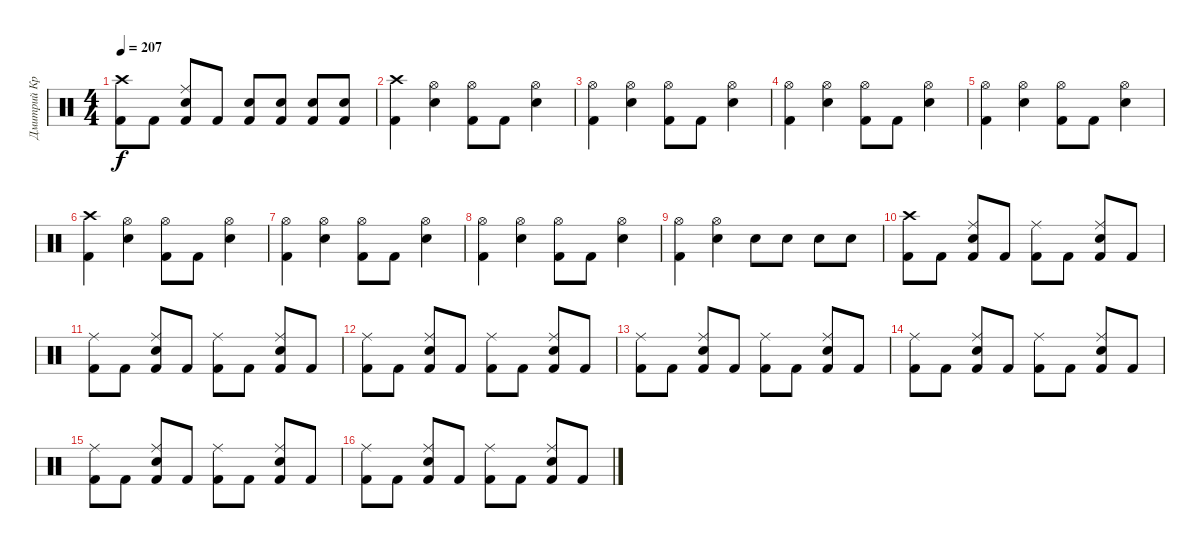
\track ("Дмитрий Кривенков" "Дмитрий Кр") {instrument percussion}
\staff {score}
\articulation defaults
\ts (4 4)
\tempo 207
\clef neutral
\ks c
("Crash high (hit)" "Kick (hit) 2").8{dy f} "Kick (hit) 2".8 ("Ride (middle)" "Electric Snare (hit)" "Kick (hit) 2").8 "Kick (hit) 2".8 ("Electric Snare (hit)" "Kick (hit) 2").8 ("Electric Snare (hit)" "Kick (hit) 2").8 ("Electric Snare (hit)" "Kick (hit) 2").8 ("Electric Snare (hit)" "Kick (hit) 2").8 |
("Crash high (hit)" "Kick (hit) 2").4 ("Hi-Hat (open)" "Electric Snare (hit)").4 ("Hi-Hat (open)" "Kick (hit) 2").8 "Kick (hit) 2".8 ("Hi-Hat (open)" "Electric Snare (hit)").4 |
("Hi-Hat (open)" "Kick (hit) 2").4 ("Hi-Hat (open)" "Electric Snare (hit)").4 ("Hi-Hat (open)" "Kick (hit) 2").8 "Kick (hit) 2".8 ("Hi-Hat (open)" "Electric Snare (hit)").4 |
("Hi-Hat (open)" "Kick (hit) 2").4 ("Hi-Hat (open)" "Electric Snare (hit)").4 ("Hi-Hat (open)" "Kick (hit) 2").8 "Kick (hit) 2".8 ("Hi-Hat (open)" "Electric Snare (hit)").4 |
("Hi-Hat (open)" "Kick (hit) 2").4 ("Hi-Hat (open)" "Electric Snare (hit)").4 ("Hi-Hat (open)" "Kick (hit) 2").8 "Kick (hit) 2".8 ("Hi-Hat (open)" "Electric Snare (hit)").4 |
("Crash high (hit)" "Kick (hit) 2").4 ("Hi-Hat (open)" "Electric Snare (hit)").4 ("Hi-Hat (open)" "Kick (hit) 2").8 "Kick (hit) 2".8 ("Hi-Hat (open)" "Electric Snare (hit)").4 |
("Hi-Hat (open)" "Kick (hit) 2").4 ("Hi-Hat (open)" "Electric Snare (hit)").4 ("Hi-Hat (open)" "Kick (hit) 2").8 "Kick (hit) 2".8 ("Hi-Hat (open)" "Electric Snare (hit)").4 |
("Hi-Hat (open)" "Kick (hit) 2").4 ("Hi-Hat (open)" "Electric Snare (hit)").4 ("Hi-Hat (open)" "Kick (hit) 2").8 "Kick (hit) 2".8 ("Hi-Hat (open)" "Electric Snare (hit)").4 |
("Hi-Hat (open)" "Kick (hit) 2").4 ("Hi-Hat (open)" "Electric Snare (hit)").4 "Electric Snare (hit)".8 "Electric Snare (hit)".8 "Electric Snare (hit)".8 "Electric Snare (hit)".8 |
("Crash high (hit)" "Kick (hit) 2").8 "Kick (hit) 2".8 ("Ride (middle)" "Electric Snare (hit)" "Kick (hit) 2").8 "Kick (hit) 2".8 ("Ride (middle)" "Kick (hit) 2").8 "Kick (hit) 2".8 ("Ride (middle)" "Electric Snare (hit)" "Kick (hit) 2").8 "Kick (hit) 2".8 |
("Ride (middle)" "Kick (hit) 2").8 "Kick (hit) 2".8 ("Ride (middle)" "Electric Snare (hit)" "Kick (hit) 2").8 "Kick (hit) 2".8 ("Ride (middle)" "Kick (hit) 2").8 "Kick (hit) 2".8 ("Ride (middle)" "Electric Snare (hit)" "Kick (hit) 2").8 "Kick (hit) 2".8 |
("Ride (middle)" "Kick (hit) 2").8 "Kick (hit) 2".8 ("Ride (middle)" "Electric Snare (hit)" "Kick (hit) 2").8 "Kick (hit) 2".8 ("Ride (middle)" "Kick (hit) 2").8 "Kick (hit) 2".8 ("Ride (middle)" "Electric Snare (hit)" "Kick (hit) 2").8 "Kick (hit) 2".8 |
("Ride (middle)" "Kick (hit) 2").8 "Kick (hit) 2".8 ("Ride (middle)" "Electric Snare (hit)" "Kick (hit) 2").8 "Kick (hit) 2".8 ("Ride (middle)" "Kick (hit) 2").8 "Kick (hit) 2".8 ("Ride (middle)" "Electric Snare (hit)" "Kick (hit) 2").8 "Kick (hit) 2".8 |
("Ride (middle)" "Kick (hit) 2").8 "Kick (hit) 2".8 ("Ride (middle)" "Electric Snare (hit)" "Kick (hit) 2").8 "Kick (hit) 2".8 ("Ride (middle)" "Kick (hit) 2").8 "Kick (hit) 2".8 ("Ride (middle)" "Electric Snare (hit)" "Kick (hit) 2").8 "Kick (hit) 2".8 |
("Ride (middle)" "Kick (hit) 2").8 "Kick (hit) 2".8 ("Ride (middle)" "Electric Snare (hit)" "Kick (hit) 2").8 "Kick (hit) 2".8 ("Ride (middle)" "Kick (hit) 2").8 "Kick (hit) 2".8 ("Ride (middle)" "Electric Snare (hit)" "Kick (hit) 2").8 "Kick (hit) 2".8 |
("Ride (middle)" "Kick (hit) 2").8 "Kick (hit) 2".8 ("Ride (middle)" "Electric Snare (hit)" "Kick (hit) 2").8 "Kick (hit) 2".8 ("Ride (middle)" "Kick (hit) 2").8 "Kick (hit) 2".8 ("Ride (middle)" "Electric Snare (hit)" "Kick (hit) 2").8 "Kick (hit) 2".8
